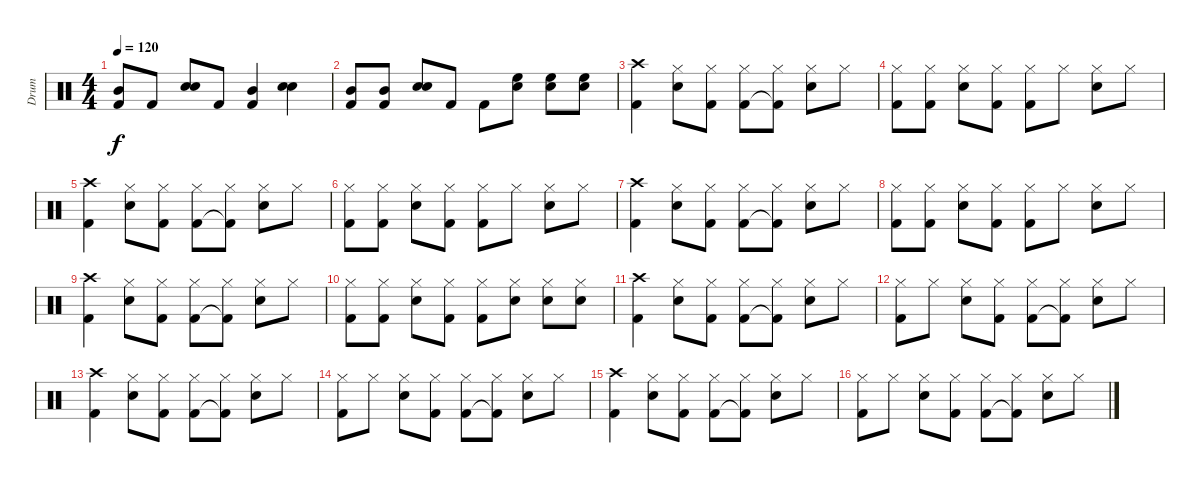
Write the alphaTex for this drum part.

\track ("Drum" "Drum") {instrument percussion}
\staff {score}
\articulation defaults
\ts (4 4)
\tempo 120
\clef neutral
\ks c
("Mid Tom (hit)" "Kick (hit) 2").8{dy f} "Kick (hit) 2".8 ("Snare (hit) 2" "Snare (hit) 2").8 "Kick (hit) 2".8 ("Mid Tom (hit)" "Kick (hit) 2").4 ("Snare (hit) 2" "Snare (hit) 2").4 |
("Mid Tom (hit)" "Kick (hit) 2").8 ("Mid Tom (hit)" "Kick (hit) 2").8 ("Snare (hit) 2" "Snare (hit) 2").8 "Kick (hit) 2".8 "Kick (hit) 2".8 ("Snare (hit) 2" "High Floor Tom (hit)").8 ("Snare (hit) 2" "High Floor Tom (hit)").8 ("Snare (hit) 2" "High Floor Tom (hit)").8 |
("Crash high (hit)" "Kick (hit) 2").4 ("Hi-Hat (closed)" "Snare (hit) 2").8 ("Hi-Hat (closed)" "Kick (hit) 2").8 ("Hi-Hat (closed)" "Kick (hit) 2").8 ("Hi-Hat (closed)" "Kick (hit) 2"{t}).8 ("Hi-Hat (closed)" "Snare (hit) 2").8 "Hi-Hat (closed)".8 |
("Hi-Hat (closed)" "Kick (hit) 2").8 ("Hi-Hat (closed)" "Kick (hit) 2").8 ("Hi-Hat (closed)" "Snare (hit) 2").8 ("Hi-Hat (closed)" "Kick (hit) 2").8 ("Hi-Hat (closed)" "Kick (hit) 2").8 "Hi-Hat (closed)".8 ("Hi-Hat (closed)" "Snare (hit) 2").8 "Hi-Hat (closed)".8 |
("Crash high (hit)" "Kick (hit) 2").4 ("Hi-Hat (closed)" "Snare (hit) 2").8 ("Hi-Hat (closed)" "Kick (hit) 2").8 ("Hi-Hat (closed)" "Kick (hit) 2").8 ("Hi-Hat (closed)" "Kick (hit) 2"{t}).8 ("Hi-Hat (closed)" "Snare (hit) 2").8 "Hi-Hat (closed)".8 |
("Hi-Hat (closed)" "Kick (hit) 2").8 ("Hi-Hat (closed)" "Kick (hit) 2").8 ("Hi-Hat (closed)" "Snare (hit) 2").8 ("Hi-Hat (closed)" "Kick (hit) 2").8 ("Hi-Hat (closed)" "Kick (hit) 2").8 "Hi-Hat (closed)".8 ("Hi-Hat (closed)" "Snare (hit) 2").8 "Hi-Hat (closed)".8 |
("Crash high (hit)" "Kick (hit) 2").4 ("Hi-Hat (closed)" "Snare (hit) 2").8 ("Hi-Hat (closed)" "Kick (hit) 2").8 ("Hi-Hat (closed)" "Kick (hit) 2").8 ("Hi-Hat (closed)" "Kick (hit) 2"{t}).8 ("Hi-Hat (closed)" "Snare (hit) 2").8 "Hi-Hat (closed)".8 |
("Hi-Hat (closed)" "Kick (hit) 2").8 ("Hi-Hat (closed)" "Kick (hit) 2").8 ("Hi-Hat (closed)" "Snare (hit) 2").8 ("Hi-Hat (closed)" "Kick (hit) 2").8 ("Hi-Hat (closed)" "Kick (hit) 2").8 "Hi-Hat (closed)".8 ("Hi-Hat (closed)" "Snare (hit) 2").8 "Hi-Hat (closed)".8 |
("Crash high (hit)" "Kick (hit) 2").4 ("Hi-Hat (closed)" "Snare (hit) 2").8 ("Hi-Hat (closed)" "Kick (hit) 2").8 ("Hi-Hat (closed)" "Kick (hit) 2").8 ("Hi-Hat (closed)" "Kick (hit) 2"{t}).8 ("Hi-Hat (closed)" "Snare (hit) 2").8 "Hi-Hat (closed)".8 |
("Hi-Hat (closed)" "Kick (hit) 2").8 ("Hi-Hat (closed)" "Kick (hit) 2").8 ("Hi-Hat (closed)" "Snare (hit) 2").8 ("Hi-Hat (closed)" "Kick (hit) 2").8 ("Hi-Hat (closed)" "Kick (hit) 2").8 ("Hi-Hat (closed)" "Snare (hit) 2").8 ("Hi-Hat (closed)" "Snare (hit) 2").8 ("Hi-Hat (closed)" "Snare (hit) 2").8 |
("Crash high (hit)" "Kick (hit) 2").4 ("Hi-Hat (closed)" "Snare (hit) 2").8 ("Hi-Hat (closed)" "Kick (hit) 2").8 ("Hi-Hat (closed)" "Kick (hit) 2").8 ("Hi-Hat (closed)" "Kick (hit) 2"{t}).8 ("Hi-Hat (closed)" "Snare (hit) 2").8 "Hi-Hat (closed)".8 |
("Hi-Hat (closed)" "Kick (hit) 2").8 "Hi-Hat (closed)".8 ("Hi-Hat (closed)" "Snare (hit) 2").8 ("Hi-Hat (closed)" "Kick (hit) 2").8 ("Hi-Hat (closed)" "Kick (hit) 2").8 ("Hi-Hat (closed)" "Kick (hit) 2"{t}).8 ("Hi-Hat (closed)" "Snare (hit) 2").8 "Hi-Hat (closed)".8 |
("Crash high (hit)" "Kick (hit) 2").4 ("Hi-Hat (closed)" "Snare (hit) 2").8 ("Hi-Hat (closed)" "Kick (hit) 2").8 ("Hi-Hat (closed)" "Kick (hit) 2").8 ("Hi-Hat (closed)" "Kick (hit) 2"{t}).8 ("Hi-Hat (closed)" "Snare (hit) 2").8 "Hi-Hat (closed)".8 |
("Hi-Hat (closed)" "Kick (hit) 2").8 "Hi-Hat (closed)".8 ("Hi-Hat (closed)" "Snare (hit) 2").8 ("Hi-Hat (closed)" "Kick (hit) 2").8 ("Hi-Hat (closed)" "Kick (hit) 2").8 ("Hi-Hat (closed)" "Kick (hit) 2"{t}).8 ("Hi-Hat (closed)" "Snare (hit) 2").8 "Hi-Hat (closed)".8 |
("Crash high (hit)" "Kick (hit) 2").4 ("Hi-Hat (closed)" "Snare (hit) 2").8 ("Hi-Hat (closed)" "Kick (hit) 2").8 ("Hi-Hat (closed)" "Kick (hit) 2").8 ("Hi-Hat (closed)" "Kick (hit) 2"{t}).8 ("Hi-Hat (closed)" "Snare (hit) 2").8 "Hi-Hat (closed)".8 |
("Hi-Hat (closed)" "Kick (hit) 2").8 "Hi-Hat (closed)".8 ("Hi-Hat (closed)" "Snare (hit) 2").8 ("Hi-Hat (closed)" "Kick (hit) 2").8 ("Hi-Hat (closed)" "Kick (hit) 2").8 ("Hi-Hat (closed)" "Kick (hit) 2"{t}).8 ("Hi-Hat (closed)" "Snare (hit) 2").8 "Hi-Hat (closed)".8
